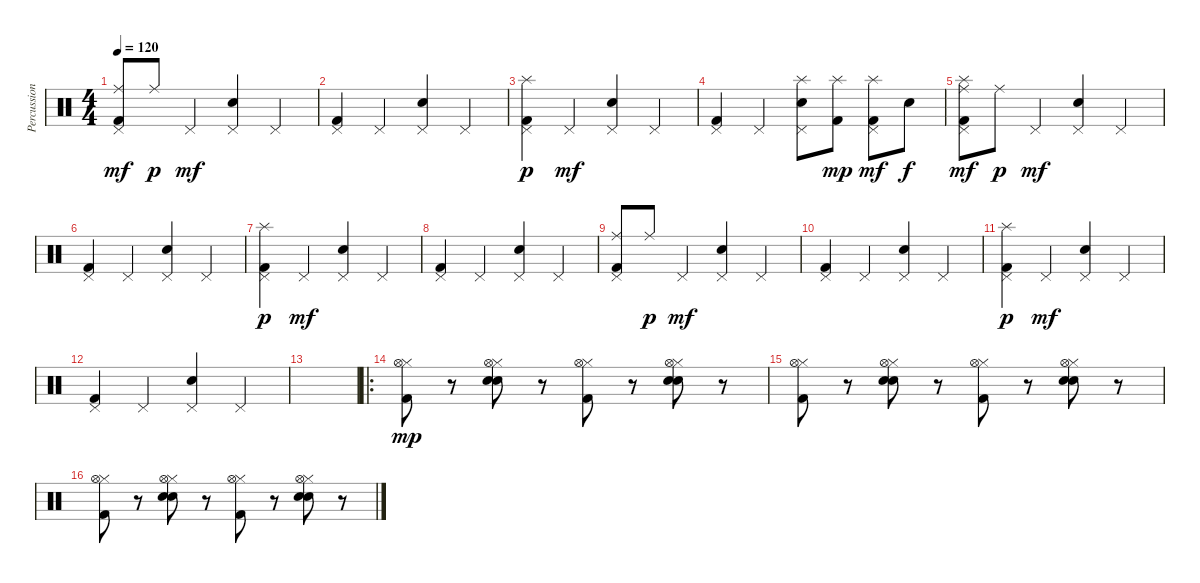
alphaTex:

\track ("Percussion" "Percussion") {instrument percussion}
\staff {score}
\articulation defaults
\ts (4 4)
\tempo 120
\clef neutral
\ks c
("Pedal Hi-Hat (hit)" "Ride (middle)" "Kick (hit) 2").8{dy mf} "Ride (middle)".8{dy p} "Pedal Hi-Hat (hit)".4{dy mf} ("Pedal Hi-Hat (hit)" "Electric Snare (hit)").4 "Pedal Hi-Hat (hit)".4 |
("Pedal Hi-Hat (hit)" "Kick (hit) 2").4 "Pedal Hi-Hat (hit)".4 ("Pedal Hi-Hat (hit)" "Electric Snare (hit)").4 "Pedal Hi-Hat (hit)".4 |
("Pedal Hi-Hat (hit)" "Splash (hit)" "Kick (hit) 2").4{dy p} "Pedal Hi-Hat (hit)".4{dy mf} ("Pedal Hi-Hat (hit)" "Electric Snare (hit)").4 "Pedal Hi-Hat (hit)".4 |
("Pedal Hi-Hat (hit)" "Kick (hit) 2").4 "Pedal Hi-Hat (hit)".4 ("Pedal Hi-Hat (hit)" "Splash (hit)" "Electric Snare (hit)").8 ("Splash (hit)" "Kick (hit) 2").8{dy mp} ("Pedal Hi-Hat (hit)" "Splash (hit)" "Kick (hit) 2").8{dy mf} "Electric Snare (hit)".8{dy f} |
("Pedal Hi-Hat (hit)" "Splash (hit)" "Ride (middle)" "Kick (hit) 2").8{dy mf} "Ride (middle)".8{dy p} "Pedal Hi-Hat (hit)".4{dy mf} ("Pedal Hi-Hat (hit)" "Electric Snare (hit)").4 "Pedal Hi-Hat (hit)".4 |
("Pedal Hi-Hat (hit)" "Kick (hit) 2").4 "Pedal Hi-Hat (hit)".4 ("Pedal Hi-Hat (hit)" "Electric Snare (hit)").4 "Pedal Hi-Hat (hit)".4 |
("Pedal Hi-Hat (hit)" "Splash (hit)" "Kick (hit) 2").4{dy p} "Pedal Hi-Hat (hit)".4{dy mf} ("Pedal Hi-Hat (hit)" "Electric Snare (hit)").4 "Pedal Hi-Hat (hit)".4 |
("Pedal Hi-Hat (hit)" "Kick (hit) 2").4 "Pedal Hi-Hat (hit)".4 ("Pedal Hi-Hat (hit)" "Electric Snare (hit)").4 "Pedal Hi-Hat (hit)".4 |
("Pedal Hi-Hat (hit)" "Ride (middle)" "Kick (hit) 2").8 "Ride (middle)".8{dy p} "Pedal Hi-Hat (hit)".4{dy mf} ("Pedal Hi-Hat (hit)" "Electric Snare (hit)").4 "Pedal Hi-Hat (hit)".4 |
("Pedal Hi-Hat (hit)" "Kick (hit) 2").4 "Pedal Hi-Hat (hit)".4 ("Pedal Hi-Hat (hit)" "Electric Snare (hit)").4 "Pedal Hi-Hat (hit)".4 |
("Pedal Hi-Hat (hit)" "Splash (hit)" "Kick (hit) 2").4{dy p} "Pedal Hi-Hat (hit)".4{dy mf} ("Pedal Hi-Hat (hit)" "Electric Snare (hit)").4 "Pedal Hi-Hat (hit)".4 |
("Pedal Hi-Hat (hit)" "Kick (hit) 2").4 "Pedal Hi-Hat (hit)".4 ("Pedal Hi-Hat (hit)" "Electric Snare (hit)").4 "Pedal Hi-Hat (hit)".4 |
|
\ro
("Hi-Hat (closed)" "Hi-Hat (open)" "Kick (hit) 2").8{dy mp} r.8 ("Hi-Hat (closed)" "Hi-Hat (open)" "Electric Snare (hit)" "Snare (hit) 2").8 r.8 ("Hi-Hat (closed)" "Hi-Hat (open)" "Kick (hit) 2").8 r.8 ("Hi-Hat (closed)" "Hi-Hat (open)" "Electric Snare (hit)" "Snare (hit) 2").8 r.8 |
("Hi-Hat (closed)" "Hi-Hat (open)" "Kick (hit) 2").8 r.8 ("Hi-Hat (closed)" "Hi-Hat (open)" "Electric Snare (hit)" "Snare (hit) 2").8 r.8 ("Hi-Hat (closed)" "Hi-Hat (open)" "Kick (hit) 2").8 r.8 ("Hi-Hat (closed)" "Hi-Hat (open)" "Electric Snare (hit)" "Snare (hit) 2").8 r.8 |
("Hi-Hat (closed)" "Hi-Hat (open)" "Kick (hit) 2").8 r.8 ("Hi-Hat (closed)" "Hi-Hat (open)" "Electric Snare (hit)" "Snare (hit) 2").8 r.8 ("Hi-Hat (closed)" "Hi-Hat (open)" "Kick (hit) 2").8 r.8 ("Hi-Hat (closed)" "Hi-Hat (open)" "Electric Snare (hit)" "Snare (hit) 2").8 r.8
